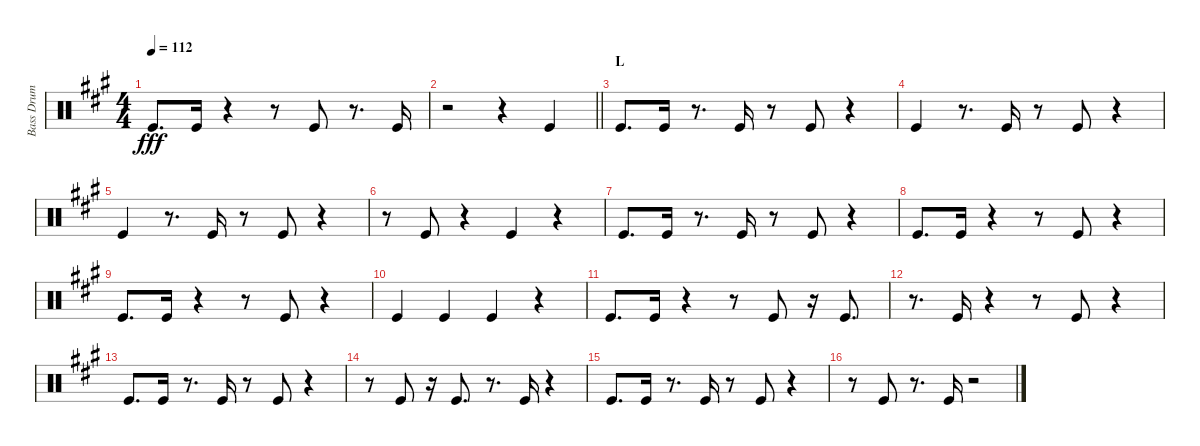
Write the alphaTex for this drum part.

\track ("Bass Drum" "Bass Drum") {instrument percussion}
\staff {score}
\articulation defaults
\ts (4 4)
\tempo 112
\clef neutral
\ks a "Kick (hit)".8{d dy fff} "Kick (hit)".16
r.4 r.8 "Kick (hit)".8 r.8{d} "Kick (hit)".16 |
\barLineRight lightlight
r.2 r.4 "Kick (hit)".4 |
\section ("" "L")
"Kick (hit)".8{d} "Kick (hit)".16 r.8{d} "Kick (hit)".16 r.8 "Kick (hit)".8 r.4 |
"Kick (hit)".4 r.8{d} "Kick (hit)".16 r.8 "Kick (hit)".8 r.4 |
"Kick (hit)".4 r.8{d} "Kick (hit)".16 r.8 "Kick (hit)".8 r.4 |
r.8 "Kick (hit)".8 r.4 "Kick (hit)".4 r.4 |
"Kick (hit)".8{d} "Kick (hit)".16 r.8{d} "Kick (hit)".16 r.8 "Kick (hit)".8 r.4 |
"Kick (hit)".8{d} "Kick (hit)".16 r.4 r.8 "Kick (hit)".8 r.4 |
"Kick (hit)".8{d} "Kick (hit)".16 r.4 r.8 "Kick (hit)".8 r.4 |
"Kick (hit)".4 "Kick (hit)".4 "Kick (hit)".4 r.4 |
"Kick (hit)".8{d} "Kick (hit)".16 r.4 r.8 "Kick (hit)".8 r.16 "Kick (hit)".8{d} |
r.8{d} "Kick (hit)".16 r.4 r.8 "Kick (hit)".8 r.4 |
"Kick (hit)".8{d} "Kick (hit)".16 r.8{d} "Kick (hit)".16 r.8 "Kick (hit)".8 r.4 |
r.8 "Kick (hit)".8 r.16 "Kick (hit)".8{d} r.8{d} "Kick (hit)".16 r.4 |
"Kick (hit)".8{d} "Kick (hit)".16 r.8{d} "Kick (hit)".16 r.8 "Kick (hit)".8 r.4 |
r.8 "Kick (hit)".8 r.8{d} "Kick (hit)".16 r.2
